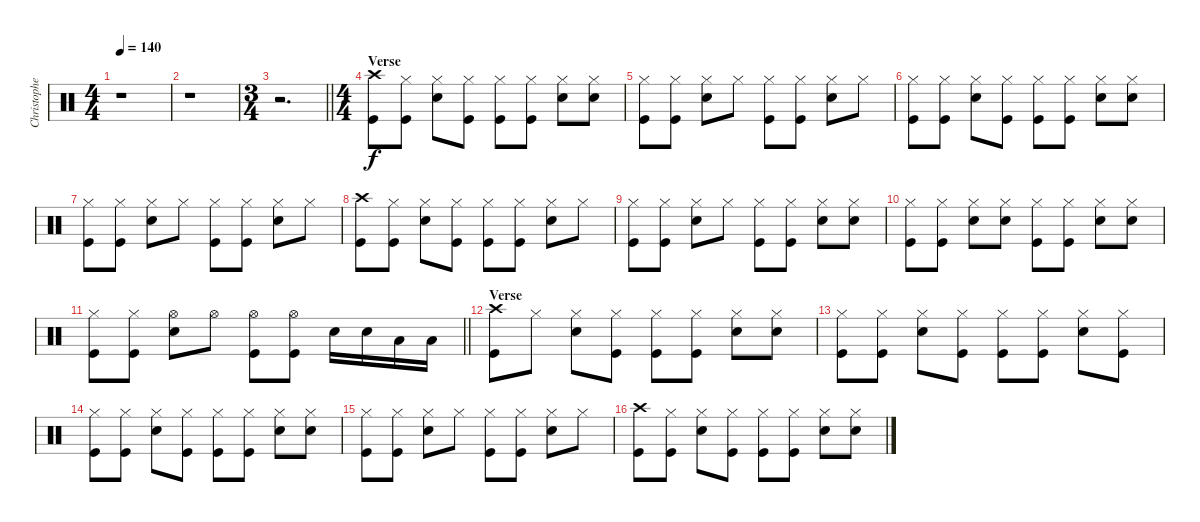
\track ("Christopher - Drums" "Christophe") {instrument percussion}
\staff {score}
\articulation defaults
\ts (4 4)
\tempo 140
\clef neutral
\ks c
r.1{dy f} |
r.1 |
\ts (3 4)
\barLineRight lightlight
r.2{d} |
\ts (4 4)
\section ("" "Verse")
("Crash high (hit)" "Kick (hit)").8 ("Hi-Hat (closed)" "Kick (hit)").8 ("Hi-Hat (closed)" "Snare (hit) 2").8 ("Hi-Hat (closed)" "Kick (hit)").8 ("Hi-Hat (closed)" "Kick (hit)").8 ("Hi-Hat (closed)" "Kick (hit)").8 ("Hi-Hat (closed)" "Snare (hit) 2").8 ("Hi-Hat (closed)" "Snare (hit) 2").8 |
("Hi-Hat (closed)" "Kick (hit)").8 ("Hi-Hat (closed)" "Kick (hit)").8 ("Hi-Hat (closed)" "Snare (hit) 2").8 "Hi-Hat (closed)".8 ("Hi-Hat (closed)" "Kick (hit)").8 ("Hi-Hat (closed)" "Kick (hit)").8 ("Hi-Hat (closed)" "Snare (hit) 2").8 "Hi-Hat (closed)".8 |
("Hi-Hat (closed)" "Kick (hit)").8 ("Hi-Hat (closed)" "Kick (hit)").8 ("Hi-Hat (closed)" "Snare (hit) 2").8 ("Hi-Hat (closed)" "Kick (hit)").8 ("Hi-Hat (closed)" "Kick (hit)").8 ("Hi-Hat (closed)" "Kick (hit)").8 ("Hi-Hat (closed)" "Snare (hit) 2").8 ("Hi-Hat (closed)" "Snare (hit) 2").8 |
("Hi-Hat (closed)" "Kick (hit)").8 ("Hi-Hat (closed)" "Kick (hit)").8 ("Hi-Hat (closed)" "Snare (hit) 2").8 "Hi-Hat (closed)".8 ("Hi-Hat (closed)" "Kick (hit)").8 ("Hi-Hat (closed)" "Kick (hit)").8 ("Hi-Hat (closed)" "Snare (hit) 2").8 "Hi-Hat (closed)".8 |
("Crash high (hit)" "Kick (hit)").8 ("Hi-Hat (closed)" "Kick (hit)").8 ("Hi-Hat (closed)" "Snare (hit) 2").8 ("Hi-Hat (closed)" "Kick (hit)").8 ("Hi-Hat (closed)" "Kick (hit)").8 ("Hi-Hat (closed)" "Kick (hit)").8 ("Hi-Hat (closed)" "Snare (hit) 2").8 "Hi-Hat (closed)".8 |
("Hi-Hat (closed)" "Kick (hit)").8 ("Hi-Hat (closed)" "Kick (hit)").8 ("Hi-Hat (closed)" "Snare (hit) 2").8 "Hi-Hat (closed)".8 ("Hi-Hat (closed)" "Kick (hit)").8 ("Hi-Hat (closed)" "Kick (hit)").8 ("Hi-Hat (closed)" "Snare (hit) 2").8 ("Hi-Hat (closed)" "Snare (hit) 2").8 |
("Hi-Hat (closed)" "Kick (hit)").8 ("Hi-Hat (closed)" "Kick (hit)").8 ("Hi-Hat (closed)" "Snare (hit) 2").8 ("Hi-Hat (closed)" "Snare (hit) 2").8 ("Hi-Hat (closed)" "Kick (hit)").8 ("Hi-Hat (closed)" "Kick (hit)").8 ("Hi-Hat (closed)" "Snare (hit) 2").8 ("Hi-Hat (closed)" "Snare (hit) 2").8 |
\barLineRight lightlight
("Hi-Hat (closed)" "Kick (hit)").8 ("Hi-Hat (closed)" "Kick (hit)").8 ("Hi-Hat (open)" "Snare (hit) 2").8 "Hi-Hat (open)".8 ("Hi-Hat (open)" "Kick (hit)").8 ("Hi-Hat (open)" "Kick (hit)").8 "Snare (hit) 2".16 "Snare (hit) 2".16 "Low Tom (hit)".16 "Low Tom (hit)".16 |
\section ("" "Verse")
("Crash high (hit)" "Kick (hit)").8 "Hi-Hat (closed)".8 ("Hi-Hat (closed)" "Snare (hit) 2").8 ("Hi-Hat (closed)" "Kick (hit)").8 ("Hi-Hat (closed)" "Kick (hit)").8 ("Hi-Hat (closed)" "Kick (hit)").8 ("Hi-Hat (closed)" "Snare (hit) 2").8 ("Hi-Hat (closed)" "Snare (hit) 2").8 |
("Hi-Hat (closed)" "Kick (hit)").8 ("Hi-Hat (closed)" "Kick (hit)").8 ("Hi-Hat (closed)" "Snare (hit) 2").8 ("Hi-Hat (closed)" "Kick (hit)").8 ("Hi-Hat (closed)" "Kick (hit)").8 ("Hi-Hat (closed)" "Kick (hit)").8 ("Hi-Hat (closed)" "Snare (hit) 2").8 ("Hi-Hat (closed)" "Kick (hit)").8 |
("Hi-Hat (closed)" "Kick (hit)").8 ("Hi-Hat (closed)" "Kick (hit)").8 ("Hi-Hat (closed)" "Snare (hit) 2").8 ("Hi-Hat (closed)" "Kick (hit)").8 ("Hi-Hat (closed)" "Kick (hit)").8 ("Hi-Hat (closed)" "Kick (hit)").8 ("Hi-Hat (closed)" "Snare (hit) 2").8 ("Hi-Hat (closed)" "Snare (hit) 2").8 |
("Hi-Hat (closed)" "Kick (hit)").8 ("Hi-Hat (closed)" "Kick (hit)").8 ("Hi-Hat (closed)" "Snare (hit) 2").8 "Hi-Hat (closed)".8 ("Hi-Hat (closed)" "Kick (hit)").8 ("Hi-Hat (closed)" "Kick (hit)").8 ("Hi-Hat (closed)" "Snare (hit) 2").8 "Hi-Hat (closed)".8 |
("Crash high (hit)" "Kick (hit)").8 ("Hi-Hat (closed)" "Kick (hit)").8 ("Hi-Hat (closed)" "Snare (hit) 2").8 ("Hi-Hat (closed)" "Kick (hit)").8 ("Hi-Hat (closed)" "Kick (hit)").8 ("Hi-Hat (closed)" "Kick (hit)").8 ("Hi-Hat (closed)" "Snare (hit) 2").8 ("Hi-Hat (closed)" "Snare (hit) 2").8
